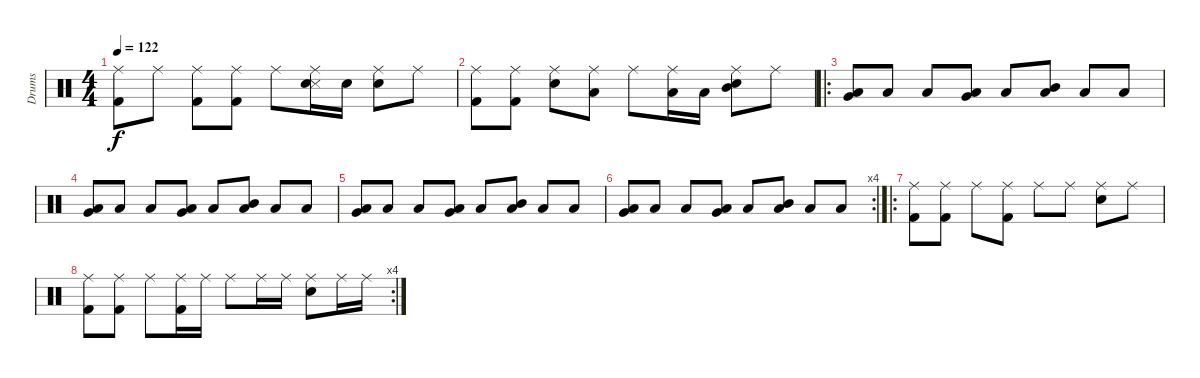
\track ("Drums" "Drums") {instrument percussion}
\staff {score}
\articulation defaults
\ts (4 4)
\tempo 122
\clef neutral
\ks c
("Ride (middle)" "Kick (hit) 2").8{dy f} "Ride (middle)".8 ("Ride (middle)" "Kick (hit) 2").8 ("Ride (middle)" "Kick (hit) 2").8 "Ride (middle)".8 ("Ride (middle)" "Snare (side stick) 3" "Snare (hit) 2").16 "Snare (hit) 2".16 ("Ride (middle)" "Snare (hit) 2").8 "Ride (middle)".8 |
("Ride (middle)" "Kick (hit) 2").8 ("Ride (middle)" "Kick (hit) 2").8 ("Ride (middle)" "Snare (hit) 2").8 ("Ride (middle)" "Low Tom (hit)").8 "Ride (middle)".8 ("Ride (middle)" "Low Tom (hit)").16 "Low Tom (hit)".16 ("Ride (middle)" "Mid Tom (hit)" "Snare (hit) 2").8 "Ride (middle)".8 |
\ro
("Very Low Tom (hit)" "Low Floor Tom (hit)").8 "Low Floor Tom (hit)".8 "Low Floor Tom (hit)".8 ("Very Low Tom (hit)" "Low Floor Tom (hit)").8 "Low Floor Tom (hit)".8 ("Mid Tom (hit)" "Low Floor Tom (hit)").8 "Low Floor Tom (hit)".8 "Low Floor Tom (hit)".8 |
("Very Low Tom (hit)" "Low Floor Tom (hit)").8 "Low Floor Tom (hit)".8 "Low Floor Tom (hit)".8 ("Very Low Tom (hit)" "Low Floor Tom (hit)").8 "Low Floor Tom (hit)".8 ("Mid Tom (hit)" "Low Floor Tom (hit)").8 "Low Floor Tom (hit)".8 "Low Floor Tom (hit)".8 |
("Very Low Tom (hit)" "Low Floor Tom (hit)").8 "Low Floor Tom (hit)".8 "Low Floor Tom (hit)".8 ("Very Low Tom (hit)" "Low Floor Tom (hit)").8 "Low Floor Tom (hit)".8 ("Mid Tom (hit)" "Low Floor Tom (hit)").8 "Low Floor Tom (hit)".8 "Low Floor Tom (hit)".8 |
\rc 4
("Very Low Tom (hit)" "Low Floor Tom (hit)").8 "Low Floor Tom (hit)".8 "Low Floor Tom (hit)".8 ("Very Low Tom (hit)" "Low Floor Tom (hit)").8 "Low Floor Tom (hit)".8 ("Mid Tom (hit)" "Low Floor Tom (hit)").8 "Low Floor Tom (hit)".8 "Low Floor Tom (hit)".8 |
\ro
("Ride (middle)" "Kick (hit) 2").8 ("Ride (middle)" "Kick (hit) 2").8 "Ride (middle)".8 ("Ride (middle)" "Kick (hit) 2").8 "Ride (middle)".8 "Ride (middle)".8 ("Ride (middle)" "Snare (hit) 2").8 "Ride (middle)".8 |
\rc 4
("Ride (middle)" "Kick (hit) 2").8 ("Ride (middle)" "Kick (hit) 2").8 "Ride (middle)".8 ("Ride (middle)" "Kick (hit) 2").16 "Ride (middle)".16 "Ride (middle)".8 "Ride (middle)".16 "Ride (middle)".16 ("Ride (middle)" "Snare (hit) 2").8 "Ride (middle)".16 "Ride (middle)".16
